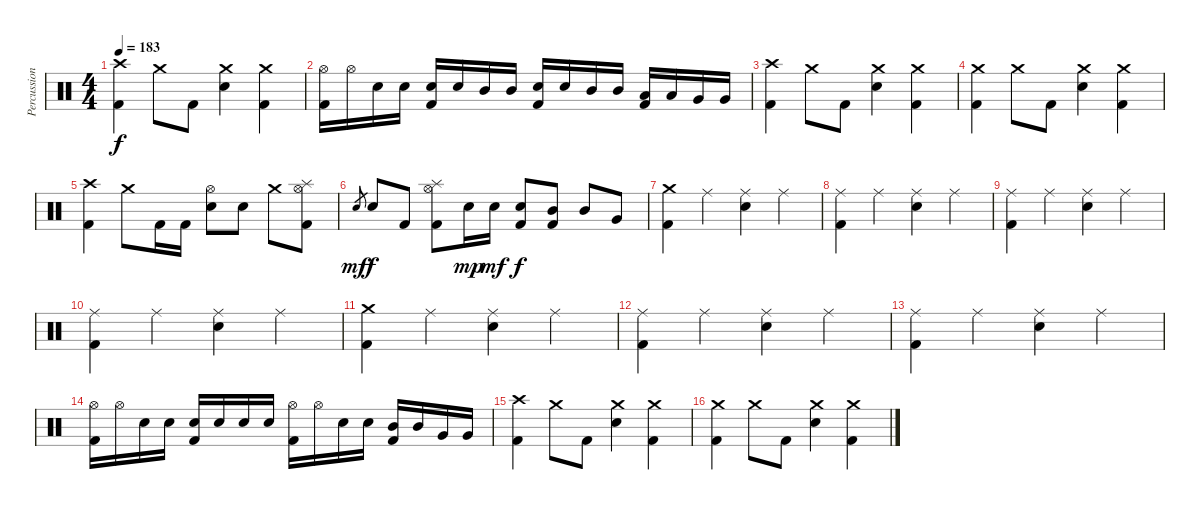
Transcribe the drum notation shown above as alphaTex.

\track ("Percussion" "Percussion") {instrument percussion}
\staff {score}
\articulation defaults
\ts (4 4)
\tempo 183
\clef neutral
\ks c
("Crash high (hit)" "Kick (hit) 2").4{dy f} "Crash medium (hit)".8 "Kick (hit) 2".8 ("Crash medium (hit)" "Electric Snare (hit)").4 ("Crash medium (hit)" "Kick (hit) 2").4 |
("Hi-Hat (open)" "Kick (hit) 2").16 "Hi-Hat (open)".16 "Electric Snare (hit)".16 "Electric Snare (hit)".16 ("Electric Snare (hit)" "Kick (hit) 2").16 "Electric Snare (hit)".16 "Mid Tom (hit)".16 "Mid Tom (hit)".16 ("Electric Snare (hit)" "Kick (hit) 2").16 "Electric Snare (hit)".16 "Mid Tom (hit)".16 "Mid Tom (hit)".16 ("Low Tom (hit)" "Kick (hit) 2").16 "Low Tom (hit)".16 "Very Low Tom (hit)".16 "Very Low Tom (hit)".16 |
("Crash high (hit)" "Kick (hit) 2").4 "Crash medium (hit)".8 "Kick (hit) 2".8 ("Crash medium (hit)" "Electric Snare (hit)").4 ("Crash medium (hit)" "Kick (hit) 2").4 |
("Crash medium (hit)" "Kick (hit) 2").4 "Crash medium (hit)".8 "Kick (hit) 2".8 ("Crash medium (hit)" "Electric Snare (hit)").4 ("Crash medium (hit)" "Kick (hit) 2").4 |
("Crash high (hit)" "Kick (hit) 2").4 "Crash medium (hit)".8 "Kick (hit) 2".16 "Kick (hit) 2".16 ("Hi-Hat (open)" "Electric Snare (hit)").8 "Electric Snare (hit)".8 "Crash medium (hit)".8 ("Hi-Hat (open)" "Splash (hit)" "Kick (hit) 2").8 |
"Electric Snare (hit)".8{gr dy mf} "Electric Snare (hit)".8{dy f} "Kick (hit) 2".8 ("Hi-Hat (open)" "Splash (hit)" "Kick (hit) 2").8 "Electric Snare (hit)".16{dy mp} "Electric Snare (hit)".16{dy mf} ("Electric Snare (hit)" "Kick (hit) 2").8{dy f} ("Mid Tom (hit)" "Kick (hit) 2").8 "Mid Tom (hit)".8 "Very Low Tom (hit)".8 |
("Crash medium (hit)" "Kick (hit) 2").4 "Ride (middle)".4 ("Ride (middle)" "Electric Snare (hit)").4 "Ride (middle)".4 |
("Ride (middle)" "Kick (hit) 2").4 "Ride (middle)".4 ("Ride (middle)" "Electric Snare (hit)").4 "Ride (middle)".4 |
("Ride (middle)" "Kick (hit) 2").4 "Ride (middle)".4 ("Ride (middle)" "Electric Snare (hit)").4 "Ride (middle)".4 |
("Ride (middle)" "Kick (hit) 2").4 "Ride (middle)".4 ("Ride (middle)" "Electric Snare (hit)").4 "Ride (middle)".4 |
("Crash medium (hit)" "Kick (hit) 2").4 "Ride (middle)".4 ("Ride (middle)" "Electric Snare (hit)").4 "Ride (middle)".4 |
("Ride (middle)" "Kick (hit) 2").4 "Ride (middle)".4 ("Ride (middle)" "Electric Snare (hit)").4 "Ride (middle)".4 |
("Ride (middle)" "Kick (hit) 2").4 "Ride (middle)".4 ("Ride (middle)" "Electric Snare (hit)").4 "Ride (middle)".4 |
("Hi-Hat (open)" "Kick (hit) 2").16 "Hi-Hat (open)".16 "Electric Snare (hit)".16 "Electric Snare (hit)".16 ("Electric Snare (hit)" "Kick (hit) 2").16 "Electric Snare (hit)".16 "Electric Snare (hit)".16 "Electric Snare (hit)".16 ("Hi-Hat (open)" "Kick (hit) 2").16 "Hi-Hat (open)".16 "Electric Snare (hit)".16 "Electric Snare (hit)".16 ("Mid Tom (hit)" "Kick (hit) 2").16 "Mid Tom (hit)".16 "Very Low Tom (hit)".16 "Very Low Tom (hit)".16 |
("Crash high (hit)" "Kick (hit) 2").4 "Crash medium (hit)".8 "Kick (hit) 2".8 ("Crash medium (hit)" "Electric Snare (hit)").4 ("Crash medium (hit)" "Kick (hit) 2").4 |
("Crash medium (hit)" "Kick (hit) 2").4 "Crash medium (hit)".8 "Kick (hit) 2".8 ("Crash medium (hit)" "Electric Snare (hit)").4 ("Crash medium (hit)" "Kick (hit) 2").4
